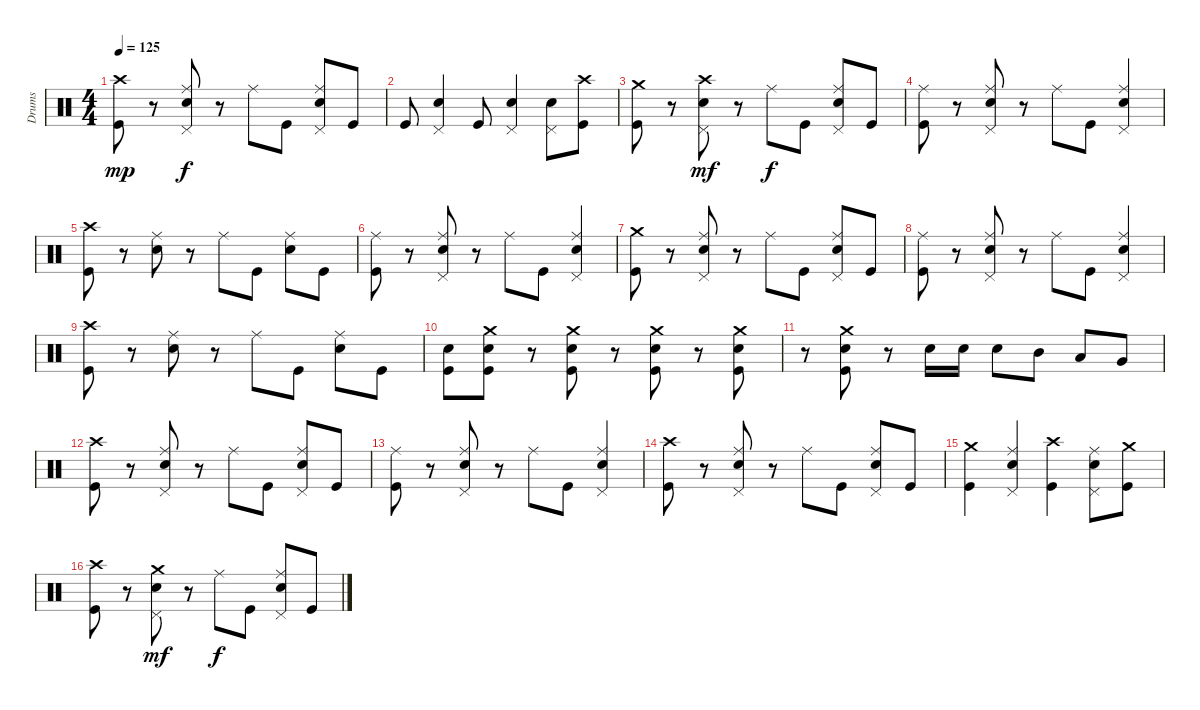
\track ("Drums" "Drums") {instrument percussion}
\staff {score}
\articulation defaults
\ts (4 4)
\tempo 125
\clef neutral
\ks c
("Kick (hit)" "Crash high (hit)").8{dy mp} r.8 ("Snare (hit) 2" "Ride (middle)" "Pedal Hi-Hat (hit)").8{dy f} r.8 "Ride (middle)".8 "Kick (hit)".8 ("Snare (hit) 2" "Ride (middle)" "Pedal Hi-Hat (hit)").8 "Kick (hit)".8 |
"Kick (hit)".8 ("Snare (hit) 2" "Pedal Hi-Hat (hit)").4 "Kick (hit)".8 ("Snare (hit) 2" "Pedal Hi-Hat (hit)").4 ("Snare (hit) 2" "Pedal Hi-Hat (hit)").8 ("Kick (hit)" "Crash high (hit)").8 |
("Crash medium (hit)" "Kick (hit)").8 r.8 ("Snare (hit) 2" "Crash high (hit)" "Pedal Hi-Hat (hit)").8{dy mf} r.8 "Ride (middle)".8{dy f} "Kick (hit)".8 ("Snare (hit) 2" "Ride (middle)" "Pedal Hi-Hat (hit)").8 "Kick (hit)".8 |
("Kick (hit)" "Ride (middle)").8 r.8 ("Snare (hit) 2" "Ride (middle)" "Pedal Hi-Hat (hit)").8 r.8 "Ride (middle)".8 "Kick (hit)".8 ("Snare (hit) 2" "Ride (middle)" "Pedal Hi-Hat (hit)").4 |
("Crash high (hit)" "Kick (hit)").8 r.8 ("Snare (hit) 2" "Ride (middle)").8 r.8 "Ride (middle)".8 "Kick (hit)".8 ("Snare (hit) 2" "Ride (middle)").8 "Kick (hit)".8 |
("Kick (hit)" "Ride (middle)").8 r.8 ("Snare (hit) 2" "Ride (middle)" "Pedal Hi-Hat (hit)").8 r.8 "Ride (middle)".8 "Kick (hit)".8 ("Snare (hit) 2" "Ride (middle)" "Pedal Hi-Hat (hit)").4 |
("Crash medium (hit)" "Kick (hit)").8 r.8 ("Snare (hit) 2" "Ride (middle)" "Pedal Hi-Hat (hit)").8 r.8 "Ride (middle)".8 "Kick (hit)".8 ("Snare (hit) 2" "Ride (middle)" "Pedal Hi-Hat (hit)").8 "Kick (hit)".8 |
("Kick (hit)" "Ride (middle)").8 r.8 ("Snare (hit) 2" "Ride (middle)" "Pedal Hi-Hat (hit)").8 r.8 "Ride (middle)".8 "Kick (hit)".8 ("Snare (hit) 2" "Ride (middle)" "Pedal Hi-Hat (hit)").4 |
("Crash high (hit)" "Kick (hit)").8 r.8 ("Snare (hit) 2" "Ride (middle)").8 r.8 "Ride (middle)".8 "Kick (hit)".8 ("Snare (hit) 2" "Ride (middle)").8 "Kick (hit)".8 |
("Snare (hit) 2" "Kick (hit)").8 ("Snare (hit) 2" "Crash medium (hit)" "Kick (hit)").8 r.8 ("Snare (hit) 2" "Crash medium (hit)" "Kick (hit)").8 r.8 ("Snare (hit) 2" "Crash medium (hit)" "Kick (hit)").8 r.8 ("Snare (hit) 2" "Crash medium (hit)" "Kick (hit)").8 |
r.8 ("Snare (hit) 2" "Crash medium (hit)" "Kick (hit)").8 r.8 "Snare (hit) 2".16 "Snare (hit) 2".16 "Snare (hit) 2".8 "Mid Tom (hit)".8 "Low Tom (hit)".8 "Very Low Tom (hit)".8 |
("Crash high (hit)" "Kick (hit)").8 r.8 ("Snare (hit) 2" "Ride (middle)" "Pedal Hi-Hat (hit)").8 r.8 "Ride (middle)".8 "Kick (hit)".8 ("Snare (hit) 2" "Ride (middle)" "Pedal Hi-Hat (hit)").8 "Kick (hit)".8 |
("Kick (hit)" "Ride (middle)").8 r.8 ("Snare (hit) 2" "Ride (middle)" "Pedal Hi-Hat (hit)").8 r.8 "Ride (middle)".8 "Kick (hit)".8 ("Snare (hit) 2" "Ride (middle)" "Pedal Hi-Hat (hit)").4 |
("Crash high (hit)" "Kick (hit)").8 r.8 ("Snare (hit) 2" "Ride (middle)" "Pedal Hi-Hat (hit)").8 r.8 "Ride (middle)".8 "Kick (hit)".8 ("Snare (hit) 2" "Ride (middle)" "Pedal Hi-Hat (hit)").8 "Kick (hit)".8 |
("Kick (hit)" "Crash medium (hit)").4 ("Snare (hit) 2" "Pedal Hi-Hat (hit)" "Ride (middle)").4 ("Crash high (hit)" "Kick (hit)").4 ("Snare (hit) 2" "Pedal Hi-Hat (hit)" "Ride (middle)").8 ("Crash medium (hit)" "Kick (hit)").8 |
("Crash high (hit)" "Kick (hit)").8 r.8 ("Snare (hit) 2" "Crash medium (hit)" "Pedal Hi-Hat (hit)").8{dy mf} r.8 "Ride (middle)".8{dy f} "Kick (hit)".8 ("Snare (hit) 2" "Ride (middle)" "Pedal Hi-Hat (hit)").8 "Kick (hit)".8
